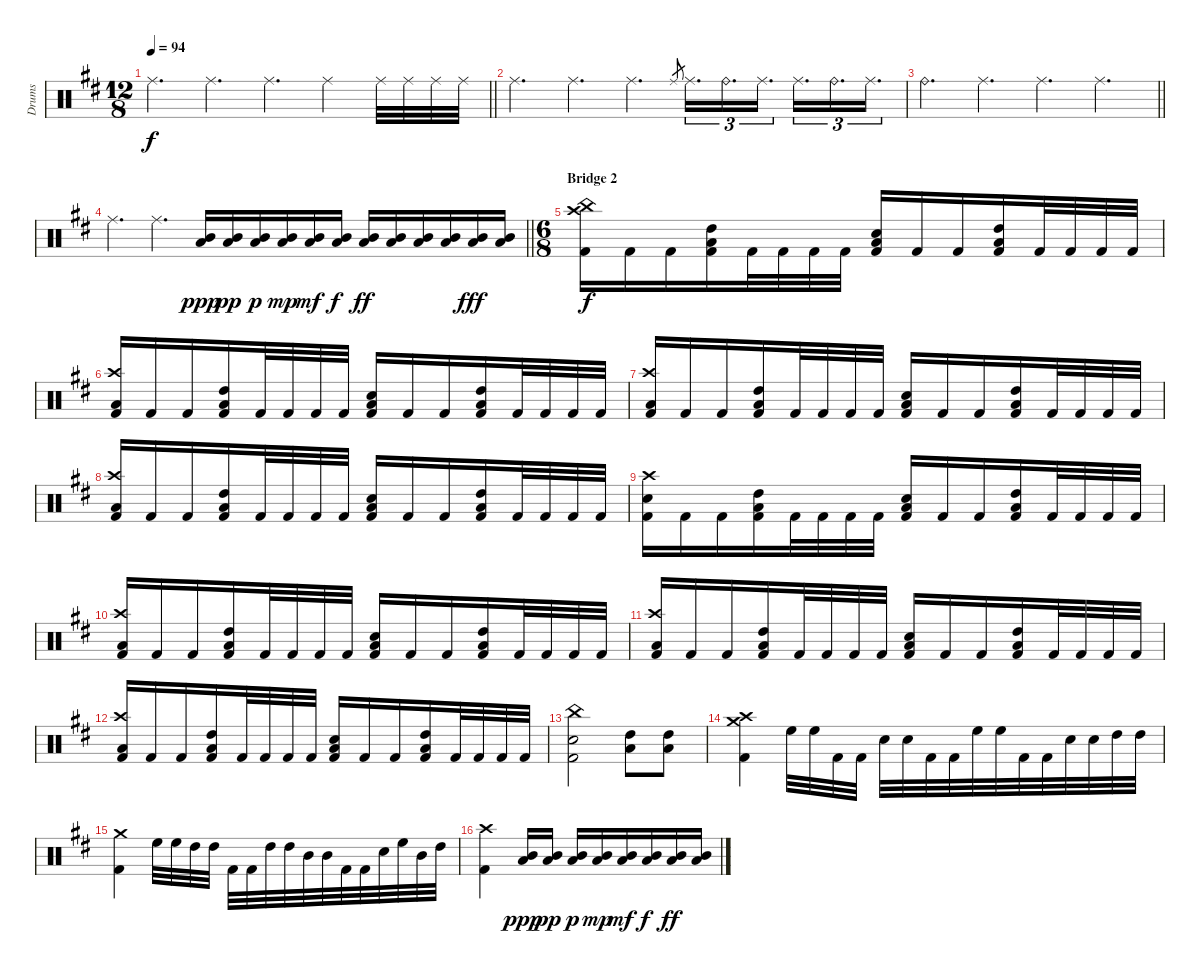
\track ("Drums" "Drums") {instrument percussion}
\staff {score}
\articulation defaults
\ts (12 8)
\tempo 94
\clef neutral
\barLineRight lightlight
\ks bminor "Ride (middle)".4{d dy f} "Ride (middle)".4{d} "Ride (middle)".4{d} "Ride (middle)".4 "Ride (middle)".32 "Ride (middle)".32 "Ride (middle)".32 "Ride (middle)".32
|
"Ride (middle)".4{d} "Ride (middle)".4{d} "Ride (middle)".4{d} "Ride (middle)".8{gr} "Ride (middle)".16{d tu (3 2)} "Ride (bell)".16{d tu (3 2)} "Ride (middle)".16{d tu (3 2)} "Ride (middle)".16{d tu (3 2)} "Ride (bell)".16{d tu (3 2)} "Ride (middle)".16{d tu (3 2)} |
\barLineRight lightlight "Ride (bell)".4{d} "Ride (middle)".4{d} "Ride (middle)".4{d} "Ride (middle)".4{d}
|
\barLineRight lightlight "Ride (middle)".4{d} "Ride (middle)".4{d}
("Mid Tom (hit)" "Low Tom (hit)").16{dy ppp} ("Mid Tom (hit)" "Low Tom (hit)").16{dy pp} ("Mid Tom (hit)" "Low Tom (hit)").16{dy p} ("Mid Tom (hit)" "Low Tom (hit)").16{dy mp} ("Mid Tom (hit)" "Low Tom (hit)").16{dy mf} ("Mid Tom (hit)" "Low Tom (hit)").16{dy f} ("Mid Tom (hit)" "Low Tom (hit)").16{dy ff} ("Mid Tom (hit)" "Low Tom (hit)").16 ("Mid Tom (hit)" "Low Tom (hit)").16 ("Mid Tom (hit)" "Low Tom (hit)").16 ("Mid Tom (hit)" "Low Tom (hit)").16{dy fff} ("Mid Tom (hit)" "Low Tom (hit)").16 |
\ts (6 8)
\section ("" "Bridge 2")
("China (hit)" "Crash high (hit)" "Kick (hit) 2").16{dy f} "Kick (hit) 2".16 "Kick (hit) 2".16 ("High Tom (hit)" "Low Tom (hit)" "Kick (hit) 2").16 "Kick (hit) 2".32 "Kick (hit) 2".32 "Kick (hit) 2".32 "Kick (hit) 2".32 ("Low Tom (hit)" "Snare (hit) 2" "Kick (hit) 2").16 "Kick (hit) 2".16 "Kick (hit) 2".16 ("Low Tom (hit)" "High Tom (hit)" "Kick (hit) 2").16 "Kick (hit) 2".32 "Kick (hit) 2".32 "Kick (hit) 2".32 "Kick (hit) 2".32 |
("Crash high (hit)" "Low Tom (hit)" "Kick (hit) 2").16 "Kick (hit) 2".16 "Kick (hit) 2".16 ("High Tom (hit)" "Low Tom (hit)" "Kick (hit) 2").16 "Kick (hit) 2".32 "Kick (hit) 2".32 "Kick (hit) 2".32 "Kick (hit) 2".32 ("Low Tom (hit)" "Snare (hit) 2" "Kick (hit) 2").16 "Kick (hit) 2".16 "Kick (hit) 2".16 ("Low Tom (hit)" "High Tom (hit)" "Kick (hit) 2").16 "Kick (hit) 2".32 "Kick (hit) 2".32 "Kick (hit) 2".32 "Kick (hit) 2".32 |
("Crash high (hit)" "Low Tom (hit)" "Kick (hit) 2").16 "Kick (hit) 2".16 "Kick (hit) 2".16 ("High Tom (hit)" "Low Tom (hit)" "Kick (hit) 2").16 "Kick (hit) 2".32 "Kick (hit) 2".32 "Kick (hit) 2".32 "Kick (hit) 2".32 ("Low Tom (hit)" "Snare (hit) 2" "Kick (hit) 2").16 "Kick (hit) 2".16 "Kick (hit) 2".16 ("Low Tom (hit)" "High Tom (hit)" "Kick (hit) 2").16 "Kick (hit) 2".32 "Kick (hit) 2".32 "Kick (hit) 2".32 "Kick (hit) 2".32 |
("Crash high (hit)" "Low Tom (hit)" "Kick (hit) 2").16 "Kick (hit) 2".16 "Kick (hit) 2".16 ("High Tom (hit)" "Low Tom (hit)" "Kick (hit) 2").16 "Kick (hit) 2".32 "Kick (hit) 2".32 "Kick (hit) 2".32 "Kick (hit) 2".32 ("Low Tom (hit)" "Snare (hit) 2" "Kick (hit) 2").16 "Kick (hit) 2".16 "Kick (hit) 2".16 ("Low Tom (hit)" "High Tom (hit)" "Kick (hit) 2").16 "Kick (hit) 2".32 "Kick (hit) 2".32 "Kick (hit) 2".32 "Kick (hit) 2".32 |
("Crash high (hit)" "Snare (hit) 2" "Kick (hit) 2").16 "Kick (hit) 2".16 "Kick (hit) 2".16 ("High Tom (hit)" "Low Tom (hit)" "Kick (hit) 2").16 "Kick (hit) 2".32 "Kick (hit) 2".32 "Kick (hit) 2".32 "Kick (hit) 2".32 ("Low Tom (hit)" "Snare (hit) 2" "Kick (hit) 2").16 "Kick (hit) 2".16 "Kick (hit) 2".16 ("Low Tom (hit)" "High Tom (hit)" "Kick (hit) 2").16 "Kick (hit) 2".32 "Kick (hit) 2".32 "Kick (hit) 2".32 "Kick (hit) 2".32 |
("Crash high (hit)" "Low Tom (hit)" "Kick (hit) 2").16 "Kick (hit) 2".16 "Kick (hit) 2".16 ("High Tom (hit)" "Low Tom (hit)" "Kick (hit) 2").16 "Kick (hit) 2".32 "Kick (hit) 2".32 "Kick (hit) 2".32 "Kick (hit) 2".32 ("Low Tom (hit)" "Snare (hit) 2" "Kick (hit) 2").16 "Kick (hit) 2".16 "Kick (hit) 2".16 ("Low Tom (hit)" "High Tom (hit)" "Kick (hit) 2").16 "Kick (hit) 2".32 "Kick (hit) 2".32 "Kick (hit) 2".32 "Kick (hit) 2".32 |
("Crash high (hit)" "Low Tom (hit)" "Kick (hit) 2").16 "Kick (hit) 2".16 "Kick (hit) 2".16 ("High Tom (hit)" "Low Tom (hit)" "Kick (hit) 2").16 "Kick (hit) 2".32 "Kick (hit) 2".32 "Kick (hit) 2".32 "Kick (hit) 2".32 ("Low Tom (hit)" "Snare (hit) 2" "Kick (hit) 2").16 "Kick (hit) 2".16 "Kick (hit) 2".16 ("Low Tom (hit)" "High Tom (hit)" "Kick (hit) 2").16 "Kick (hit) 2".32 "Kick (hit) 2".32 "Kick (hit) 2".32 "Kick (hit) 2".32 |
("Crash high (hit)" "Low Tom (hit)" "Kick (hit) 2").16 "Kick (hit) 2".16 "Kick (hit) 2".16 ("High Tom (hit)" "Low Tom (hit)" "Kick (hit) 2").16 "Kick (hit) 2".32 "Kick (hit) 2".32 "Kick (hit) 2".32 "Kick (hit) 2".32 ("Low Tom (hit)" "Snare (hit) 2" "Kick (hit) 2").16 "Kick (hit) 2".16 "Kick (hit) 2".16 ("Low Tom (hit)" "High Tom (hit)" "Kick (hit) 2").16 "Kick (hit) 2".32 "Kick (hit) 2".32 "Kick (hit) 2".32 "Kick (hit) 2".32 |
("China (hit)" "Snare (hit) 2" "Kick (hit) 2").2 ("Low Tom (hit)" "High Tom (hit)").8 ("Low Tom (hit)" "High Tom (hit)").8 |
("Crash high (hit)" "Crash medium (hit)" "Kick (hit) 2").4 "High Floor Tom (hit)".32 "High Floor Tom (hit)".32 "Kick (hit) 2".32 "Kick (hit) 2".32 "Snare (hit) 2".32 "Snare (hit) 2".32 "Kick (hit) 2".32 "Kick (hit) 2".32 "High Floor Tom (hit)".32 "High Floor Tom (hit)".32 "Kick (hit) 2".32 "Kick (hit) 2".32 "Snare (hit) 2".32 "Snare (hit) 2".32 "High Tom (hit)".32 "High Tom (hit)".32 |
("Crash medium (hit)" "Kick (hit) 2").4 "High Floor Tom (hit)".32 "High Floor Tom (hit)".32 "High Tom (hit)".32 "High Tom (hit)".32 "Kick (hit) 2".32 "Kick (hit) 2".32 "High Tom (hit)".32 "High Tom (hit)".32 "Mid Tom (hit)".32 "Mid Tom (hit)".32 "Kick (hit) 2".32 "Kick (hit) 2".32 "Snare (hit) 2".32 "High Floor Tom (hit)".32 "Mid Tom (hit)".32 "High Tom (hit)".32 |
("Crash high (hit)" "Kick (hit) 2").4 ("Mid Tom (hit)" "Low Tom (hit)").16{dy ppp} ("Mid Tom (hit)" "Low Tom (hit)").16{dy pp} ("Mid Tom (hit)" "Low Tom (hit)").16{dy p} ("Mid Tom (hit)" "Low Tom (hit)").16{dy mp} ("Mid Tom (hit)" "Low Tom (hit)").16{dy mf} ("Mid Tom (hit)" "Low Tom (hit)").16{dy f} ("Mid Tom (hit)" "Low Tom (hit)").16{dy ff} ("Mid Tom (hit)" "Low Tom (hit)").16
